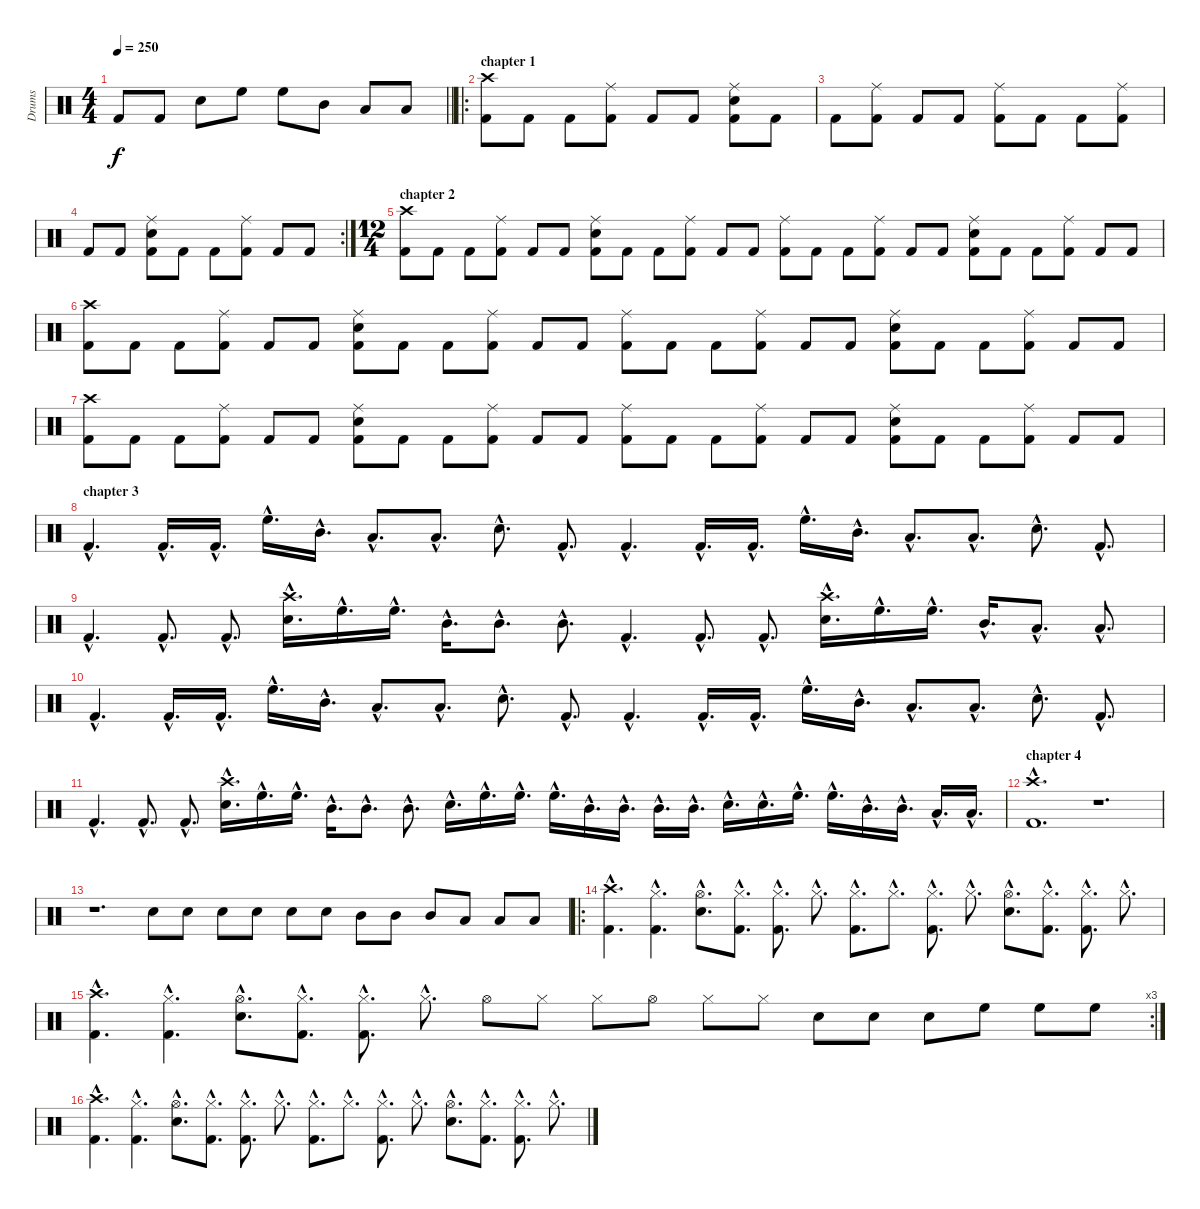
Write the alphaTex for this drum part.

\track ("Drums" "Drums") {instrument percussion}
\staff {score}
\articulation defaults
\ts (4 4)
\tempo 250
\clef neutral
\barLineRight lightlight
\ks c "Kick (hit) 2".8{dy f} "Kick (hit) 2".8 "Snare (hit) 2".8 "High Floor Tom (hit)".8 "High Floor Tom (hit)".8 "Mid Tom (hit)".8 "Low Tom (hit)".8 "Low Tom (hit)".8
|
\ro
\section ("" "chapter 1")
("Crash high (hit)" "Kick (hit) 2").8 "Kick (hit) 2".8 "Kick (hit) 2".8 ("Ride (middle)" "Kick (hit) 2").8 "Kick (hit) 2".8 "Kick (hit) 2".8 ("Ride (middle)" "Snare (hit) 2" "Kick (hit) 2").8 "Kick (hit) 2".8 |
"Kick (hit) 2".8 ("Ride (middle)" "Kick (hit) 2").8 "Kick (hit) 2".8 "Kick (hit) 2".8 ("Ride (middle)" "Kick (hit) 2").8 "Kick (hit) 2".8 "Kick (hit) 2".8 ("Ride (middle)" "Kick (hit) 2").8 |
\rc 2 "Kick (hit) 2".8 "Kick (hit) 2".8
("Ride (middle)" "Snare (hit) 2" "Kick (hit) 2").8 "Kick (hit) 2".8 "Kick (hit) 2".8 ("Ride (middle)" "Kick (hit) 2").8 "Kick (hit) 2".8 "Kick (hit) 2".8 |
\ts (12 4)
\section ("" "chapter 2")
("Crash high (hit)" "Kick (hit) 2").8 "Kick (hit) 2".8 "Kick (hit) 2".8 ("Ride (middle)" "Kick (hit) 2").8 "Kick (hit) 2".8 "Kick (hit) 2".8 ("Ride (middle)" "Snare (hit) 2" "Kick (hit) 2").8 "Kick (hit) 2".8 "Kick (hit) 2".8 ("Ride (middle)" "Kick (hit) 2").8 "Kick (hit) 2".8 "Kick (hit) 2".8 ("Ride (middle)" "Kick (hit) 2").8 "Kick (hit) 2".8 "Kick (hit) 2".8 ("Ride (middle)" "Kick (hit) 2").8 "Kick (hit) 2".8 "Kick (hit) 2".8 ("Ride (middle)" "Snare (hit) 2" "Kick (hit) 2").8 "Kick (hit) 2".8 "Kick (hit) 2".8 ("Ride (middle)" "Kick (hit) 2").8 "Kick (hit) 2".8 "Kick (hit) 2".8 |
("Crash high (hit)" "Kick (hit) 2").8 "Kick (hit) 2".8 "Kick (hit) 2".8 ("Ride (middle)" "Kick (hit) 2").8 "Kick (hit) 2".8 "Kick (hit) 2".8 ("Ride (middle)" "Snare (hit) 2" "Kick (hit) 2").8 "Kick (hit) 2".8 "Kick (hit) 2".8 ("Ride (middle)" "Kick (hit) 2").8 "Kick (hit) 2".8 "Kick (hit) 2".8 ("Ride (middle)" "Kick (hit) 2").8 "Kick (hit) 2".8 "Kick (hit) 2".8 ("Ride (middle)" "Kick (hit) 2").8 "Kick (hit) 2".8 "Kick (hit) 2".8 ("Ride (middle)" "Snare (hit) 2" "Kick (hit) 2").8 "Kick (hit) 2".8 "Kick (hit) 2".8 ("Ride (middle)" "Kick (hit) 2").8 "Kick (hit) 2".8 "Kick (hit) 2".8 |
("Crash high (hit)" "Kick (hit) 2").8 "Kick (hit) 2".8 "Kick (hit) 2".8 ("Ride (middle)" "Kick (hit) 2").8 "Kick (hit) 2".8 "Kick (hit) 2".8 ("Ride (middle)" "Snare (hit) 2" "Kick (hit) 2").8 "Kick (hit) 2".8 "Kick (hit) 2".8 ("Ride (middle)" "Kick (hit) 2").8 "Kick (hit) 2".8 "Kick (hit) 2".8 ("Ride (middle)" "Kick (hit) 2").8 "Kick (hit) 2".8 "Kick (hit) 2".8 ("Ride (middle)" "Kick (hit) 2").8 "Kick (hit) 2".8 "Kick (hit) 2".8 ("Ride (middle)" "Snare (hit) 2" "Kick (hit) 2").8 "Kick (hit) 2".8 "Kick (hit) 2".8 ("Ride (middle)" "Kick (hit) 2").8 "Kick (hit) 2".8 "Kick (hit) 2".8 |
\section ("" "chapter 3")
"Kick (hit) 2"{hac}.4{d} "Kick (hit) 2"{hac}.16{d} "Kick (hit) 2"{hac}.16{d} "High Floor Tom (hit)"{hac}.16{d} "Mid Tom (hit)"{hac}.16{d} "Low Tom (hit)"{hac}.8{d} "Low Tom (hit)"{hac}.8{d} "Snare (hit) 2"{hac}.8{d} "Kick (hit) 2"{hac}.8{d} "Kick (hit) 2"{hac}.4{d} "Kick (hit) 2"{hac}.16{d} "Kick (hit) 2"{hac}.16{d} "High Floor Tom (hit)"{hac}.16{d} "Mid Tom (hit)"{hac}.16{d} "Low Tom (hit)"{hac}.8{d} "Low Tom (hit)"{hac}.8{d} "Snare (hit) 2"{hac}.8{d} "Kick (hit) 2"{hac}.8{d} |
"Kick (hit) 2"{hac}.4{d} "Kick (hit) 2"{hac}.8{d} "Kick (hit) 2"{hac}.8{d} ("Crash high (hit)"{hac} "Snare (hit) 2"{hac}).16{d} "High Floor Tom (hit)"{hac}.16{d} "High Floor Tom (hit)"{hac}.16{d} "Mid Tom (hit)"{hac}.16{d} "Mid Tom (hit)"{hac}.8{d} "Mid Tom (hit)"{hac}.8{d} "Kick (hit) 2"{hac}.4{d} "Kick (hit) 2"{hac}.8{d} "Kick (hit) 2"{hac}.8{d} ("Crash high (hit)"{hac} "Snare (hit) 2"{hac}).16{d} "High Floor Tom (hit)"{hac}.16{d} "High Floor Tom (hit)"{hac}.16{d} "Mid Tom (hit)"{hac}.16{d} "Low Tom (hit)"{hac}.8{d} "Low Tom (hit)"{hac}.8{d} |
"Kick (hit) 2"{hac}.4{d} "Kick (hit) 2"{hac}.16{d} "Kick (hit) 2"{hac}.16{d} "High Floor Tom (hit)"{hac}.16{d} "Mid Tom (hit)"{hac}.16{d} "Low Tom (hit)"{hac}.8{d} "Low Tom (hit)"{hac}.8{d} "Snare (hit) 2"{hac}.8{d} "Kick (hit) 2"{hac}.8{d} "Kick (hit) 2"{hac}.4{d} "Kick (hit) 2"{hac}.16{d} "Kick (hit) 2"{hac}.16{d} "High Floor Tom (hit)"{hac}.16{d} "Mid Tom (hit)"{hac}.16{d} "Low Tom (hit)"{hac}.8{d} "Low Tom (hit)"{hac}.8{d} "Snare (hit) 2"{hac}.8{d} "Kick (hit) 2"{hac}.8{d} |
"Kick (hit) 2"{hac}.4{d} "Kick (hit) 2"{hac}.8{d} "Kick (hit) 2"{hac}.8{d} ("Crash high (hit)"{hac} "Snare (hit) 2"{hac}).16{d} "High Floor Tom (hit)"{hac}.16{d} "High Floor Tom (hit)"{hac}.16{d} "Mid Tom (hit)"{hac}.16{d} "Mid Tom (hit)"{hac}.8{d} "Mid Tom (hit)"{hac}.8{d} "Snare (hit) 2"{hac}.16{d} "High Floor Tom (hit)"{hac}.16{d} "High Floor Tom (hit)"{hac}.16{d} "High Floor Tom (hit)"{hac}.16{d} "Mid Tom (hit)"{hac}.16{d} "Mid Tom (hit)"{hac}.16{d} "Mid Tom (hit)"{hac}.16{d} "Mid Tom (hit)"{hac}.16{d} "Snare (hit) 2"{hac}.16{d} "Snare (hit) 2"{hac}.16{d} "High Floor Tom (hit)"{hac}.16{d} "High Floor Tom (hit)"{hac}.16{d} "Mid Tom (hit)"{hac}.16{d} "Mid Tom (hit)"{hac}.16{d} "Low Tom (hit)"{hac}.16{d} "Low Tom (hit)"{hac}.16{d} |
\section ("" "chapter 4")
("Crash high (hit)"{hac} "Kick (hit) 2"{hac}).1{d} r.1{d} |
r.1{d} "Snare (hit) 2".8 "Snare (hit) 2".8 "Snare (hit) 2".8 "Snare (hit) 2".8 "Snare (hit) 2".8 "Snare (hit) 2".8 "Mid Tom (hit)".8 "Mid Tom (hit)".8 "Mid Tom (hit)".8 "Low Tom (hit)".8 "Low Tom (hit)".8 "Low Tom (hit)".8 |
\ro
("Crash high (hit)"{hac} "Kick (hit) 2"{hac}).4{d} ("Hi-Hat (closed)"{hac} "Kick (hit) 2"{hac}).4{d} ("Hi-Hat (open)"{hac} "Snare (hit) 2"{hac}).8{d} ("Hi-Hat (closed)"{hac} "Kick (hit) 2"{hac}).8{d} ("Hi-Hat (closed)"{hac} "Kick (hit) 2"{hac}).8{d} "Hi-Hat (closed)"{hac}.8{d} ("Hi-Hat (closed)"{hac} "Kick (hit) 2"{hac}).8{d} "Hi-Hat (closed)"{hac}.8{d} ("Hi-Hat (closed)"{hac} "Kick (hit) 2"{hac}).8{d} "Hi-Hat (closed)"{hac}.8{d} ("Hi-Hat (open)"{hac} "Snare (hit) 2"{hac}).8{d} ("Hi-Hat (closed)"{hac} "Kick (hit) 2"{hac}).8{d} ("Hi-Hat (closed)"{hac} "Kick (hit) 2"{hac}).8{d} "Hi-Hat (closed)"{hac}.8{d} |
\rc 3
("Crash high (hit)"{hac} "Kick (hit) 2"{hac}).4{d} ("Hi-Hat (closed)"{hac} "Kick (hit) 2"{hac}).4{d} ("Hi-Hat (open)"{hac} "Snare (hit) 2"{hac}).8{d} ("Hi-Hat (closed)"{hac} "Kick (hit) 2"{hac}).8{d} ("Hi-Hat (closed)"{hac} "Kick (hit) 2"{hac}).8{d} "Hi-Hat (closed)"{hac}.8{d} "Hi-Hat (open)".8 "Hi-Hat (closed)".8 "Hi-Hat (closed)".8 "Hi-Hat (open)".8 "Hi-Hat (closed)".8 "Hi-Hat (closed)".8 "Snare (hit) 2".8 "Snare (hit) 2".8 "Snare (hit) 2".8 "High Floor Tom (hit)".8 "High Floor Tom (hit)".8 "High Floor Tom (hit)".8 |
("Crash high (hit)"{hac} "Kick (hit) 2"{hac}).4{d} ("Hi-Hat (closed)"{hac} "Kick (hit) 2"{hac}).4{d} ("Hi-Hat (open)"{hac} "Snare (hit) 2"{hac}).8{d} ("Hi-Hat (closed)"{hac} "Kick (hit) 2"{hac}).8{d} ("Hi-Hat (closed)"{hac} "Kick (hit) 2"{hac}).8{d} "Hi-Hat (closed)"{hac}.8{d} ("Hi-Hat (closed)"{hac} "Kick (hit) 2"{hac}).8{d} "Hi-Hat (closed)"{hac}.8{d} ("Hi-Hat (closed)"{hac} "Kick (hit) 2"{hac}).8{d} "Hi-Hat (closed)"{hac}.8{d} ("Hi-Hat (open)"{hac} "Snare (hit) 2"{hac}).8{d} ("Hi-Hat (closed)"{hac} "Kick (hit) 2"{hac}).8{d} ("Hi-Hat (closed)"{hac} "Kick (hit) 2"{hac}).8{d} "Hi-Hat (closed)"{hac}.8{d}
